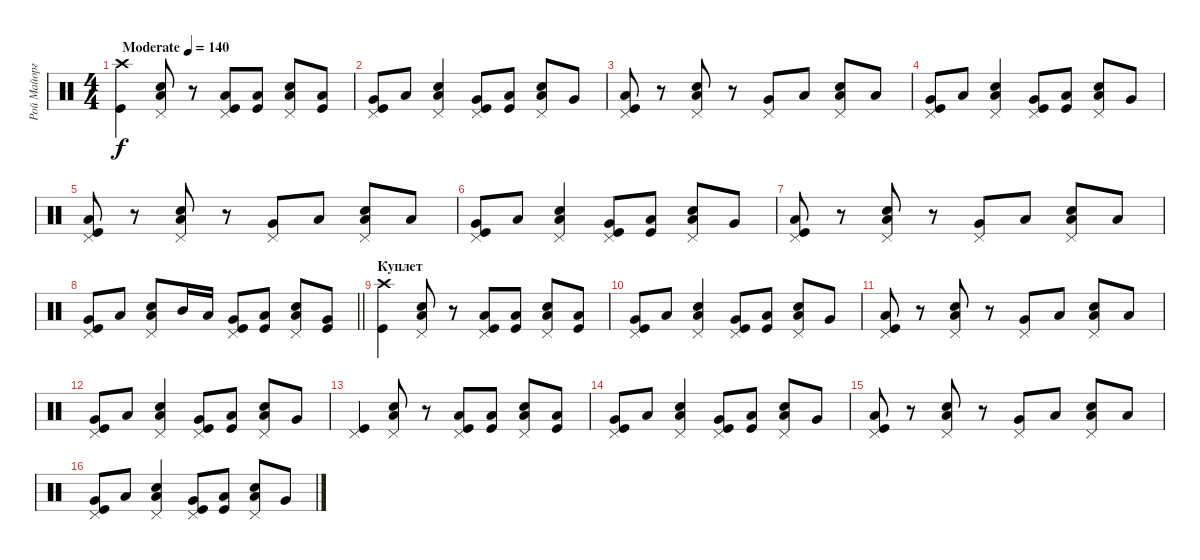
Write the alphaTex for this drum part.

\track ("Рой Майорга" "Рой Майорг") {instrument percussion}
\staff {score}
\articulation defaults
\ts (4 4)
\tempo (140 "Moderate")
\clef neutral
\ks c
("Crash high (hit)" "Kick (hit)").4{dy f} ("Pedal Hi-Hat (hit)" "Low Tom (hit)" "Snare (hit) 2").8 r.8 ("Pedal Hi-Hat (hit)" "Low Tom (hit)" "Kick (hit)").8 ("Low Floor Tom (hit)" "Kick (hit)").8 ("Pedal Hi-Hat (hit)" "Low Tom (hit)" "Snare (hit) 2").8 ("Low Floor Tom (hit)" "Kick (hit)").8 |
("Pedal Hi-Hat (hit)" "Very Low Tom (hit)" "Kick (hit)").8 "Low Tom (hit)".8 ("Pedal Hi-Hat (hit)" "Low Tom (hit)" "Snare (hit) 2").4 ("Pedal Hi-Hat (hit)" "Very Low Tom (hit)" "Kick (hit)").8 ("Low Tom (hit)" "Kick (hit)").8 ("Pedal Hi-Hat (hit)" "Low Tom (hit)" "Snare (hit) 2").8 "Very Low Tom (hit)".8 |
("Pedal Hi-Hat (hit)" "Low Tom (hit)" "Kick (hit)").8 r.8 ("Pedal Hi-Hat (hit)" "Low Tom (hit)" "Snare (hit) 2").8 r.8 ("Pedal Hi-Hat (hit)" "Very Low Tom (hit)").8 "Low Tom (hit)".8 ("Pedal Hi-Hat (hit)" "Low Tom (hit)" "Snare (hit) 2").8 "Low Floor Tom (hit)".8 |
("Pedal Hi-Hat (hit)" "Very Low Tom (hit)" "Kick (hit)").8 "Low Tom (hit)".8 ("Pedal Hi-Hat (hit)" "Low Tom (hit)" "Snare (hit) 2").4 ("Pedal Hi-Hat (hit)" "Very Low Tom (hit)" "Kick (hit)").8 ("Low Tom (hit)" "Kick (hit)").8 ("Pedal Hi-Hat (hit)" "Low Tom (hit)" "Snare (hit) 2").8 "Very Low Tom (hit)".8 |
("Pedal Hi-Hat (hit)" "Low Tom (hit)" "Kick (hit)").8 r.8 ("Pedal Hi-Hat (hit)" "Low Tom (hit)" "Snare (hit) 2").8 r.8 ("Pedal Hi-Hat (hit)" "Very Low Tom (hit)").8 "Low Tom (hit)".8 ("Pedal Hi-Hat (hit)" "Low Tom (hit)" "Snare (hit) 2").8 "Low Floor Tom (hit)".8 |
("Pedal Hi-Hat (hit)" "Very Low Tom (hit)" "Kick (hit)").8 "Low Tom (hit)".8 ("Pedal Hi-Hat (hit)" "Low Tom (hit)" "Snare (hit) 2").4 ("Pedal Hi-Hat (hit)" "Very Low Tom (hit)" "Kick (hit)").8 ("Low Tom (hit)" "Kick (hit)").8 ("Pedal Hi-Hat (hit)" "Low Tom (hit)" "Snare (hit) 2").8 "Very Low Tom (hit)".8 |
("Pedal Hi-Hat (hit)" "Low Tom (hit)" "Kick (hit)").8 r.8 ("Pedal Hi-Hat (hit)" "Low Tom (hit)" "Snare (hit) 2").8 r.8 ("Pedal Hi-Hat (hit)" "Very Low Tom (hit)").8 "Low Tom (hit)".8 ("Pedal Hi-Hat (hit)" "Low Tom (hit)" "Snare (hit) 2").8 "Low Floor Tom (hit)".8 |
\barLineRight lightlight
("Pedal Hi-Hat (hit)" "Very Low Tom (hit)" "Kick (hit)").8 "Low Tom (hit)".8 ("Pedal Hi-Hat (hit)" "Low Tom (hit)" "Snare (hit) 2").8 "Mid Tom (hit)".16 "Low Tom (hit)".16 ("Pedal Hi-Hat (hit)" "Very Low Tom (hit)" "Kick (hit)").8 ("Low Tom (hit)" "Kick (hit)").8 ("Pedal Hi-Hat (hit)" "Low Tom (hit)" "Snare (hit) 2").8 ("Very Low Tom (hit)" "Kick (hit)").8 |
\section ("" "Куплет")
("Crash high (hit)" "Kick (hit)").4 ("Pedal Hi-Hat (hit)" "Low Tom (hit)" "Snare (hit) 2").8 r.8 ("Pedal Hi-Hat (hit)" "Low Tom (hit)" "Kick (hit)").8 ("Low Floor Tom (hit)" "Kick (hit)").8 ("Pedal Hi-Hat (hit)" "Low Tom (hit)" "Snare (hit) 2").8 ("Low Floor Tom (hit)" "Kick (hit)").8 |
("Pedal Hi-Hat (hit)" "Very Low Tom (hit)" "Kick (hit)").8 "Low Tom (hit)".8 ("Pedal Hi-Hat (hit)" "Low Tom (hit)" "Snare (hit) 2").4 ("Pedal Hi-Hat (hit)" "Very Low Tom (hit)" "Kick (hit)").8 ("Low Tom (hit)" "Kick (hit)").8 ("Pedal Hi-Hat (hit)" "Low Tom (hit)" "Snare (hit) 2").8 "Very Low Tom (hit)".8 |
("Pedal Hi-Hat (hit)" "Low Tom (hit)" "Kick (hit)").8 r.8 ("Pedal Hi-Hat (hit)" "Low Tom (hit)" "Snare (hit) 2").8 r.8 ("Pedal Hi-Hat (hit)" "Very Low Tom (hit)").8 "Low Tom (hit)".8 ("Pedal Hi-Hat (hit)" "Low Tom (hit)" "Snare (hit) 2").8 "Low Floor Tom (hit)".8 |
("Pedal Hi-Hat (hit)" "Very Low Tom (hit)" "Kick (hit)").8 "Low Tom (hit)".8 ("Pedal Hi-Hat (hit)" "Low Tom (hit)" "Snare (hit) 2").4 ("Pedal Hi-Hat (hit)" "Very Low Tom (hit)" "Kick (hit)").8 ("Low Tom (hit)" "Kick (hit)").8 ("Pedal Hi-Hat (hit)" "Low Tom (hit)" "Snare (hit) 2").8 "Very Low Tom (hit)".8 |
("Pedal Hi-Hat (hit)" "Kick (hit)").4 ("Pedal Hi-Hat (hit)" "Low Tom (hit)" "Snare (hit) 2").8 r.8 ("Pedal Hi-Hat (hit)" "Low Tom (hit)" "Kick (hit)").8 ("Low Floor Tom (hit)" "Kick (hit)").8 ("Pedal Hi-Hat (hit)" "Low Tom (hit)" "Snare (hit) 2").8 ("Low Floor Tom (hit)" "Kick (hit)").8 |
("Pedal Hi-Hat (hit)" "Very Low Tom (hit)" "Kick (hit)").8 "Low Tom (hit)".8 ("Pedal Hi-Hat (hit)" "Low Tom (hit)" "Snare (hit) 2").4 ("Pedal Hi-Hat (hit)" "Very Low Tom (hit)" "Kick (hit)").8 ("Low Tom (hit)" "Kick (hit)").8 ("Pedal Hi-Hat (hit)" "Low Tom (hit)" "Snare (hit) 2").8 "Very Low Tom (hit)".8 |
("Pedal Hi-Hat (hit)" "Low Tom (hit)" "Kick (hit)").8 r.8 ("Pedal Hi-Hat (hit)" "Low Tom (hit)" "Snare (hit) 2").8 r.8 ("Pedal Hi-Hat (hit)" "Very Low Tom (hit)").8 "Low Tom (hit)".8 ("Pedal Hi-Hat (hit)" "Low Tom (hit)" "Snare (hit) 2").8 "Low Floor Tom (hit)".8 |
("Pedal Hi-Hat (hit)" "Very Low Tom (hit)" "Kick (hit)").8 "Low Tom (hit)".8 ("Pedal Hi-Hat (hit)" "Low Tom (hit)" "Snare (hit) 2").4 ("Pedal Hi-Hat (hit)" "Very Low Tom (hit)" "Kick (hit)").8 ("Low Tom (hit)" "Kick (hit)").8 ("Pedal Hi-Hat (hit)" "Low Tom (hit)" "Snare (hit) 2").8 "Very Low Tom (hit)".8
